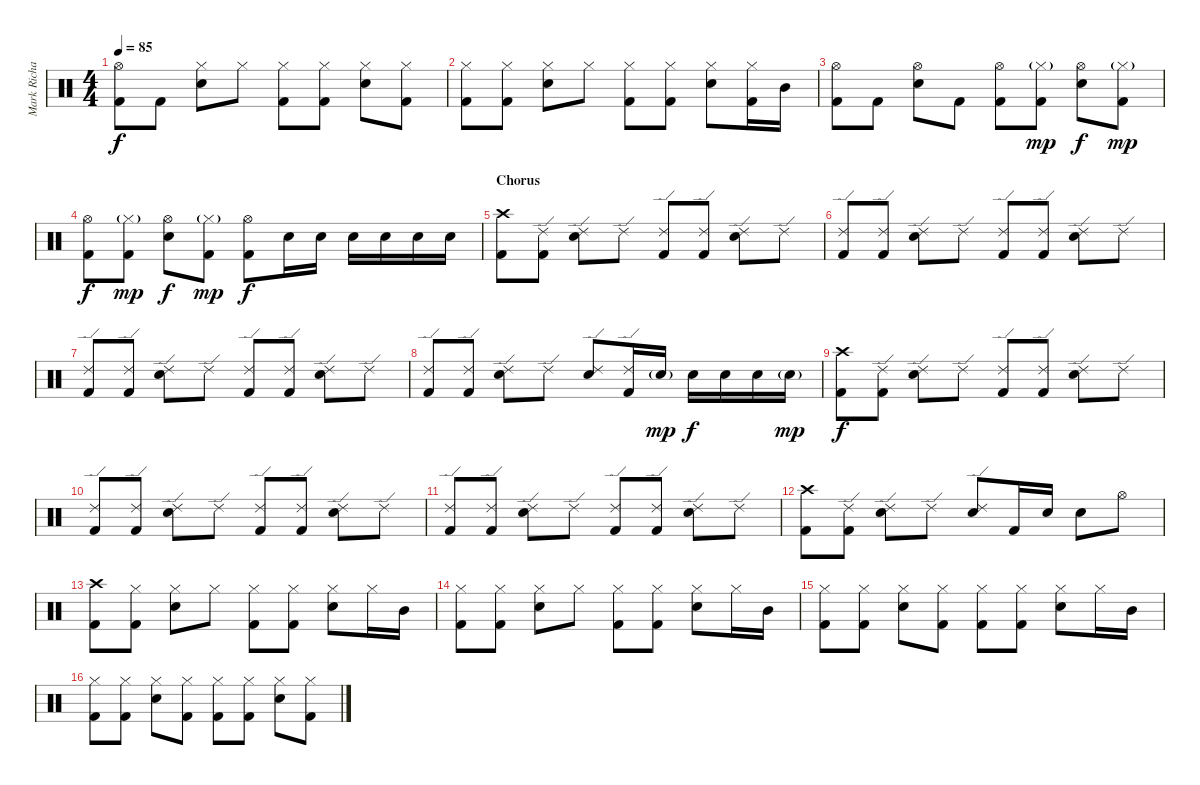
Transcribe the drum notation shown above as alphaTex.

\track ("Mark Richardson" "Mark Richa") {instrument percussion}
\staff {score}
\articulation defaults
\ts (4 4)
\tempo 85
\clef neutral
\ks c
("Hi-Hat (open)" "Kick (hit) 2").8{dy f} "Kick (hit) 2".8 ("Hi-Hat (closed)" "Snare (hit) 2").8 "Hi-Hat (closed)".8 ("Hi-Hat (closed)" "Kick (hit) 2").8 ("Hi-Hat (closed)" "Kick (hit) 2").8 ("Hi-Hat (closed)" "Snare (hit) 2").8 ("Hi-Hat (closed)" "Kick (hit) 2").8 |
("Hi-Hat (closed)" "Kick (hit) 2").8 ("Hi-Hat (closed)" "Kick (hit) 2").8 ("Hi-Hat (closed)" "Snare (hit) 2").8 "Hi-Hat (closed)".8 ("Hi-Hat (closed)" "Kick (hit) 2").8 ("Hi-Hat (closed)" "Kick (hit) 2").8 ("Hi-Hat (closed)" "Snare (hit) 2").8 ("Hi-Hat (closed)" "Kick (hit) 2").16 "Mid Tom (hit)".16 |
("Hi-Hat (open)" "Kick (hit) 2").8 "Kick (hit) 2".8 ("Hi-Hat (open)" "Snare (hit) 2").8 "Kick (hit) 2".8 ("Hi-Hat (open)" "Kick (hit) 2").8 ("Hi-Hat (closed)"{g} "Kick (hit) 2").8{dy mp} ("Hi-Hat (open)" "Snare (hit) 2").8{dy f} ("Hi-Hat (closed)"{g} "Kick (hit) 2").8{dy mp} |
("Hi-Hat (open)" "Kick (hit) 2").8{dy f} ("Hi-Hat (closed)"{g} "Kick (hit) 2").8{dy mp} ("Hi-Hat (open)" "Snare (hit) 2").8{dy f} ("Hi-Hat (closed)"{g} "Kick (hit) 2").8{dy mp} ("Hi-Hat (open)" "Kick (hit) 2").8{dy f} "Snare (hit) 2".16 "Snare (hit) 2".16 "Snare (hit) 2".16 "Snare (hit) 2".16 "Snare (hit) 2".16 "Snare (hit) 2".16 |
\section ("" "Chorus")
("Crash high (hit)" "Kick (hit) 2").8{volume 16} ("Ride (edge) 2" "Kick (hit) 2").8 ("Ride (edge) 2" "Snare (hit) 2").8 "Ride (edge) 2".8 ("Ride (edge) 2" "Kick (hit) 2").8 ("Ride (edge) 2" "Kick (hit) 2").8 ("Ride (edge) 2" "Snare (hit) 2").8 "Ride (edge) 2".8 |
("Ride (edge) 2" "Kick (hit) 2").8 ("Ride (edge) 2" "Kick (hit) 2").8 ("Ride (edge) 2" "Snare (hit) 2").8 "Ride (edge) 2".8 ("Ride (edge) 2" "Kick (hit) 2").8 ("Ride (edge) 2" "Kick (hit) 2").8 ("Ride (edge) 2" "Snare (hit) 2").8 "Ride (edge) 2".8 |
("Ride (edge) 2" "Kick (hit) 2").8 ("Ride (edge) 2" "Kick (hit) 2").8 ("Ride (edge) 2" "Snare (hit) 2").8 "Ride (edge) 2".8 ("Ride (edge) 2" "Kick (hit) 2").8 ("Ride (edge) 2" "Kick (hit) 2").8 ("Ride (edge) 2" "Snare (hit) 2").8 "Ride (edge) 2".8 |
("Ride (edge) 2" "Kick (hit) 2").8 ("Ride (edge) 2" "Kick (hit) 2").8 ("Ride (edge) 2" "Snare (hit) 2").8 "Ride (edge) 2".8 ("Ride (edge) 2" "Snare (hit) 2").8 ("Ride (edge) 2" "Kick (hit) 2").16 "Snare (hit) 2"{g}.16{dy mp} "Snare (hit) 2".16{dy f} "Snare (hit) 2".16 "Snare (hit) 2".16 "Snare (hit) 2"{g}.16{dy mp} |
("Crash high (hit)" "Kick (hit) 2").8{dy f} ("Ride (edge) 2" "Kick (hit) 2").8 ("Ride (edge) 2" "Snare (hit) 2").8 "Ride (edge) 2".8 ("Ride (edge) 2" "Kick (hit) 2").8 ("Ride (edge) 2" "Kick (hit) 2").8 ("Ride (edge) 2" "Snare (hit) 2").8 "Ride (edge) 2".8 |
("Ride (edge) 2" "Kick (hit) 2").8 ("Ride (edge) 2" "Kick (hit) 2").8 ("Ride (edge) 2" "Snare (hit) 2").8 "Ride (edge) 2".8 ("Ride (edge) 2" "Kick (hit) 2").8 ("Ride (edge) 2" "Kick (hit) 2").8 ("Ride (edge) 2" "Snare (hit) 2").8 "Ride (edge) 2".8 |
("Ride (edge) 2" "Kick (hit) 2").8 ("Ride (edge) 2" "Kick (hit) 2").8 ("Ride (edge) 2" "Snare (hit) 2").8 "Ride (edge) 2".8 ("Ride (edge) 2" "Kick (hit) 2").8 ("Ride (edge) 2" "Kick (hit) 2").8 ("Ride (edge) 2" "Snare (hit) 2").8 "Ride (edge) 2".8 |
("Crash high (hit)" "Kick (hit) 2").8 ("Ride (edge) 2" "Kick (hit) 2").8 ("Ride (edge) 2" "Snare (hit) 2").8 "Ride (edge) 2".8 ("Ride (edge) 2" "Snare (hit) 2").8 "Kick (hit) 2".16 "Snare (hit) 2".16 "Snare (hit) 2".8 "Hi-Hat (open)".8 |
("Crash high (hit)" "Kick (hit) 2").8 ("Hi-Hat (closed)" "Kick (hit) 2").8 ("Hi-Hat (closed)" "Snare (hit) 2").8 "Hi-Hat (closed)".8 ("Hi-Hat (closed)" "Kick (hit) 2").8 ("Hi-Hat (closed)" "Kick (hit) 2").8 ("Hi-Hat (closed)" "Snare (hit) 2").8 "Hi-Hat (closed)".16 "Mid Tom (hit)".16 |
("Hi-Hat (closed)" "Kick (hit) 2").8 ("Hi-Hat (closed)" "Kick (hit) 2").8 ("Hi-Hat (closed)" "Snare (hit) 2").8 "Hi-Hat (closed)".8 ("Hi-Hat (closed)" "Kick (hit) 2").8 ("Hi-Hat (closed)" "Kick (hit) 2").8 ("Hi-Hat (closed)" "Snare (hit) 2").8 "Hi-Hat (closed)".16 "Mid Tom (hit)".16 |
("Hi-Hat (closed)" "Kick (hit) 2").8 ("Hi-Hat (closed)" "Kick (hit) 2").8 ("Hi-Hat (closed)" "Snare (hit) 2").8 ("Hi-Hat (closed)" "Kick (hit) 2").8 ("Hi-Hat (closed)" "Kick (hit) 2").8 ("Hi-Hat (closed)" "Kick (hit) 2").8 ("Hi-Hat (closed)" "Snare (hit) 2").8 "Hi-Hat (closed)".16 "Mid Tom (hit)".16 |
("Hi-Hat (closed)" "Kick (hit) 2").8 ("Hi-Hat (closed)" "Kick (hit) 2").8 ("Hi-Hat (closed)" "Snare (hit) 2").8 ("Hi-Hat (closed)" "Kick (hit) 2").8 ("Hi-Hat (closed)" "Kick (hit) 2").8 ("Hi-Hat (closed)" "Kick (hit) 2").8 ("Hi-Hat (closed)" "Snare (hit) 2").8 ("Hi-Hat (closed)" "Kick (hit) 2").8
